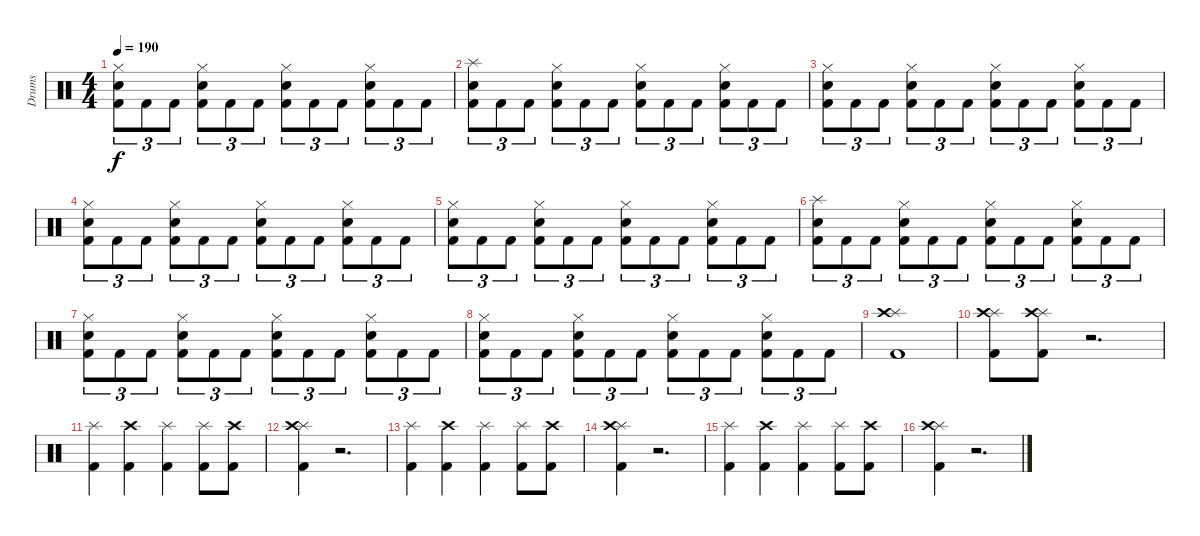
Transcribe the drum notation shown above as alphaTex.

\track ("Drums" "Drums") {instrument percussion}
\staff {score}
\articulation defaults
\ts (4 4)
\tempo 190
\clef neutral
\ks c
("Kick (hit) 2" "Electric Snare (hit)" "Hi-Hat (closed)").8{tu (3 2) dy f} "Kick (hit) 2".8{tu (3 2)} "Kick (hit) 2".8{tu (3 2)} ("Kick (hit) 2" "Electric Snare (hit)" "Hi-Hat (closed)").8{tu (3 2)} "Kick (hit) 2".8{tu (3 2)} "Kick (hit) 2".8{tu (3 2)} ("Kick (hit) 2" "Electric Snare (hit)" "Hi-Hat (closed)").8{tu (3 2)} "Kick (hit) 2".8{tu (3 2)} "Kick (hit) 2".8{tu (3 2)} ("Kick (hit) 2" "Electric Snare (hit)" "Hi-Hat (closed)").8{tu (3 2)} "Kick (hit) 2".8{tu (3 2)} "Kick (hit) 2".8{tu (3 2)} |
("Kick (hit) 2" "Electric Snare (hit)" "Splash (hit)").8{tu (3 2)} "Kick (hit) 2".8{tu (3 2)} "Kick (hit) 2".8{tu (3 2)} ("Kick (hit) 2" "Electric Snare (hit)" "Hi-Hat (closed)").8{tu (3 2)} "Kick (hit) 2".8{tu (3 2)} "Kick (hit) 2".8{tu (3 2)} ("Kick (hit) 2" "Electric Snare (hit)" "Hi-Hat (closed)").8{tu (3 2)} "Kick (hit) 2".8{tu (3 2)} "Kick (hit) 2".8{tu (3 2)} ("Kick (hit) 2" "Electric Snare (hit)" "Hi-Hat (closed)").8{tu (3 2)} "Kick (hit) 2".8{tu (3 2)} "Kick (hit) 2".8{tu (3 2)} |
("Kick (hit) 2" "Electric Snare (hit)" "Hi-Hat (closed)").8{tu (3 2)} "Kick (hit) 2".8{tu (3 2)} "Kick (hit) 2".8{tu (3 2)} ("Kick (hit) 2" "Electric Snare (hit)" "Hi-Hat (closed)").8{tu (3 2)} "Kick (hit) 2".8{tu (3 2)} "Kick (hit) 2".8{tu (3 2)} ("Kick (hit) 2" "Electric Snare (hit)" "Hi-Hat (closed)").8{tu (3 2)} "Kick (hit) 2".8{tu (3 2)} "Kick (hit) 2".8{tu (3 2)} ("Kick (hit) 2" "Electric Snare (hit)" "Hi-Hat (closed)").8{tu (3 2)} "Kick (hit) 2".8{tu (3 2)} "Kick (hit) 2".8{tu (3 2)} |
("Kick (hit) 2" "Electric Snare (hit)" "Hi-Hat (closed)").8{tu (3 2)} "Kick (hit) 2".8{tu (3 2)} "Kick (hit) 2".8{tu (3 2)} ("Kick (hit) 2" "Electric Snare (hit)" "Hi-Hat (closed)").8{tu (3 2)} "Kick (hit) 2".8{tu (3 2)} "Kick (hit) 2".8{tu (3 2)} ("Kick (hit) 2" "Electric Snare (hit)" "Hi-Hat (closed)").8{tu (3 2)} "Kick (hit) 2".8{tu (3 2)} "Kick (hit) 2".8{tu (3 2)} ("Kick (hit) 2" "Electric Snare (hit)" "Hi-Hat (closed)").8{tu (3 2)} "Kick (hit) 2".8{tu (3 2)} "Kick (hit) 2".8{tu (3 2)} |
("Kick (hit) 2" "Electric Snare (hit)" "Hi-Hat (closed)").8{tu (3 2)} "Kick (hit) 2".8{tu (3 2)} "Kick (hit) 2".8{tu (3 2)} ("Kick (hit) 2" "Electric Snare (hit)" "Hi-Hat (closed)").8{tu (3 2)} "Kick (hit) 2".8{tu (3 2)} "Kick (hit) 2".8{tu (3 2)} ("Kick (hit) 2" "Electric Snare (hit)" "Hi-Hat (closed)").8{tu (3 2)} "Kick (hit) 2".8{tu (3 2)} "Kick (hit) 2".8{tu (3 2)} ("Kick (hit) 2" "Electric Snare (hit)" "Hi-Hat (closed)").8{tu (3 2)} "Kick (hit) 2".8{tu (3 2)} "Kick (hit) 2".8{tu (3 2)} |
("Kick (hit) 2" "Electric Snare (hit)" "Splash (hit)").8{tu (3 2)} "Kick (hit) 2".8{tu (3 2)} "Kick (hit) 2".8{tu (3 2)} ("Kick (hit) 2" "Electric Snare (hit)" "Hi-Hat (closed)").8{tu (3 2)} "Kick (hit) 2".8{tu (3 2)} "Kick (hit) 2".8{tu (3 2)} ("Kick (hit) 2" "Electric Snare (hit)" "Hi-Hat (closed)").8{tu (3 2)} "Kick (hit) 2".8{tu (3 2)} "Kick (hit) 2".8{tu (3 2)} ("Kick (hit) 2" "Electric Snare (hit)" "Hi-Hat (closed)").8{tu (3 2)} "Kick (hit) 2".8{tu (3 2)} "Kick (hit) 2".8{tu (3 2)} |
("Kick (hit) 2" "Electric Snare (hit)" "Hi-Hat (closed)").8{tu (3 2)} "Kick (hit) 2".8{tu (3 2)} "Kick (hit) 2".8{tu (3 2)} ("Kick (hit) 2" "Electric Snare (hit)" "Hi-Hat (closed)").8{tu (3 2)} "Kick (hit) 2".8{tu (3 2)} "Kick (hit) 2".8{tu (3 2)} ("Kick (hit) 2" "Electric Snare (hit)" "Hi-Hat (closed)").8{tu (3 2)} "Kick (hit) 2".8{tu (3 2)} "Kick (hit) 2".8{tu (3 2)} ("Kick (hit) 2" "Electric Snare (hit)" "Hi-Hat (closed)").8{tu (3 2)} "Kick (hit) 2".8{tu (3 2)} "Kick (hit) 2".8{tu (3 2)} |
("Kick (hit) 2" "Electric Snare (hit)" "Hi-Hat (closed)").8{tu (3 2)} "Kick (hit) 2".8{tu (3 2)} "Kick (hit) 2".8{tu (3 2)} ("Kick (hit) 2" "Electric Snare (hit)" "Hi-Hat (closed)").8{tu (3 2)} "Kick (hit) 2".8{tu (3 2)} "Kick (hit) 2".8{tu (3 2)} ("Kick (hit) 2" "Electric Snare (hit)" "Hi-Hat (closed)").8{tu (3 2)} "Kick (hit) 2".8{tu (3 2)} "Kick (hit) 2".8{tu (3 2)} ("Kick (hit) 2" "Electric Snare (hit)" "Hi-Hat (closed)").8{tu (3 2)} "Kick (hit) 2".8{tu (3 2)} "Kick (hit) 2".8{tu (3 2)} |
("Kick (hit) 2" "Splash (hit)" "Crash high (hit)").1 |
("Kick (hit) 2" "Splash (hit)" "Crash high (hit)").8 ("Kick (hit) 2" "Splash (hit)" "Crash high (hit)").8 r.2{d} |
("Kick (hit) 2" "Splash (hit)").4 ("Kick (hit) 2" "Crash high (hit)").4 ("Kick (hit) 2" "Splash (hit)").4 ("Kick (hit) 2" "Splash (hit)").8 ("Kick (hit) 2" "Crash high (hit)").8 |
("Kick (hit) 2" "Splash (hit)" "Crash high (hit)").4 r.2{d} |
("Kick (hit) 2" "Splash (hit)").4 ("Kick (hit) 2" "Crash high (hit)").4 ("Kick (hit) 2" "Splash (hit)").4 ("Kick (hit) 2" "Splash (hit)").8 ("Kick (hit) 2" "Crash high (hit)").8 |
("Kick (hit) 2" "Splash (hit)" "Crash high (hit)").4 r.2{d} |
("Kick (hit) 2" "Splash (hit)").4 ("Kick (hit) 2" "Crash high (hit)").4 ("Kick (hit) 2" "Splash (hit)").4 ("Kick (hit) 2" "Splash (hit)").8 ("Kick (hit) 2" "Crash high (hit)").8 |
("Kick (hit) 2" "Splash (hit)" "Crash high (hit)").4 r.2{d}
